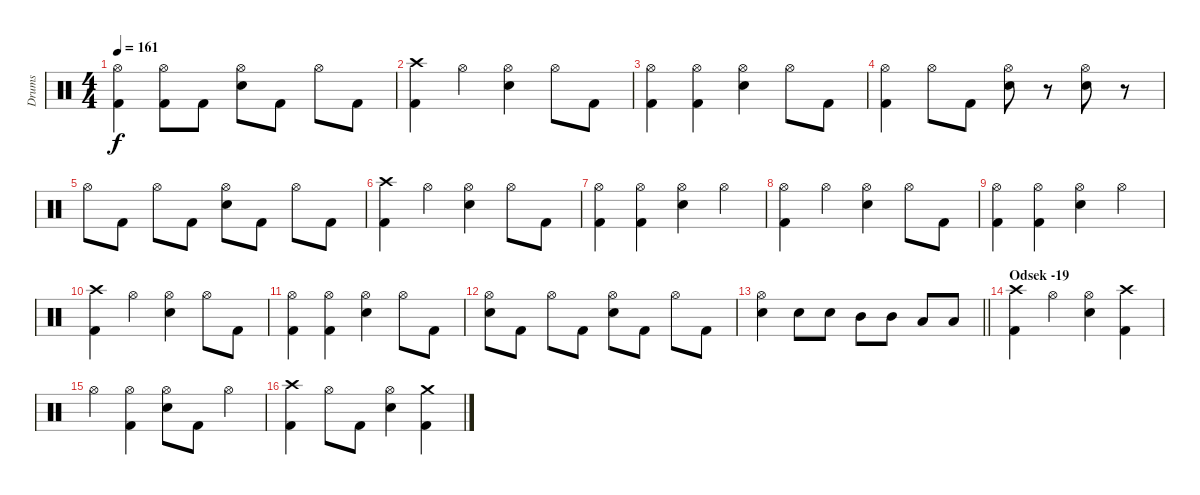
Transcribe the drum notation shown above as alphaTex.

\track ("Drums" "Drums") {instrument percussion}
\staff {score}
\articulation defaults
\ts (4 4)
\tempo 161
\clef neutral
\ks c
("Hi-Hat (open)" "Kick (hit) 2").4{dy f} ("Hi-Hat (open)" "Kick (hit) 2").8 "Kick (hit) 2".8 ("Hi-Hat (open)" "Snare (hit) 2").8 "Kick (hit) 2".8 "Hi-Hat (open)".8 "Kick (hit) 2".8 |
("Crash high (hit)" "Kick (hit) 2").4 "Hi-Hat (open)".4 ("Hi-Hat (open)" "Snare (hit) 2").4 "Hi-Hat (open)".8 "Kick (hit) 2".8 |
("Hi-Hat (open)" "Kick (hit) 2").4 ("Hi-Hat (open)" "Kick (hit) 2").4 ("Hi-Hat (open)" "Snare (hit) 2").4 "Hi-Hat (open)".8 "Kick (hit) 2".8 |
("Hi-Hat (open)" "Kick (hit) 2").4 "Hi-Hat (open)".8 "Kick (hit) 2".8 ("Hi-Hat (open)" "Snare (hit) 2").8 r.8 ("Hi-Hat (open)" "Snare (hit) 2").8 r.8 |
"Hi-Hat (open)".8 "Kick (hit) 2".8 "Hi-Hat (open)".8 "Kick (hit) 2".8 ("Hi-Hat (open)" "Snare (hit) 2").8 "Kick (hit) 2".8 "Hi-Hat (open)".8 "Kick (hit) 2".8 |
("Crash high (hit)" "Kick (hit) 2").4 "Hi-Hat (open)".4 ("Hi-Hat (open)" "Snare (hit) 2").4 "Hi-Hat (open)".8 "Kick (hit) 2".8 |
("Hi-Hat (open)" "Kick (hit) 2").4 ("Hi-Hat (open)" "Kick (hit) 2").4 ("Hi-Hat (open)" "Snare (hit) 2").4 "Hi-Hat (open)".4 |
("Hi-Hat (open)" "Kick (hit) 2").4 "Hi-Hat (open)".4 ("Hi-Hat (open)" "Snare (hit) 2").4 "Hi-Hat (open)".8 "Kick (hit) 2".8 |
("Hi-Hat (open)" "Kick (hit) 2").4 ("Hi-Hat (open)" "Kick (hit) 2").4 ("Hi-Hat (open)" "Snare (hit) 2").4 "Hi-Hat (open)".4 |
("Crash high (hit)" "Kick (hit) 2").4 "Hi-Hat (open)".4 ("Hi-Hat (open)" "Snare (hit) 2").4 "Hi-Hat (open)".8 "Kick (hit) 2".8 |
("Hi-Hat (open)" "Kick (hit) 2").4 ("Hi-Hat (open)" "Kick (hit) 2").4 ("Hi-Hat (open)" "Snare (hit) 2").4 "Hi-Hat (open)".8 "Kick (hit) 2".8 |
("Hi-Hat (open)" "Snare (hit) 2").8 "Kick (hit) 2".8 "Hi-Hat (open)".8 "Kick (hit) 2".8 ("Hi-Hat (open)" "Snare (hit) 2").8 "Kick (hit) 2".8 "Hi-Hat (open)".8 "Kick (hit) 2".8 |
\barLineRight lightlight
("Hi-Hat (open)" "Snare (hit) 2").4 "Snare (hit) 2".8 "Snare (hit) 2".8 "Mid Tom (hit)".8 "Mid Tom (hit)".8 "Low Tom (hit)".8 "Low Tom (hit)".8 |
\section ("" "Odsek -19")
("Crash high (hit)" "Kick (hit) 2").4 "Hi-Hat (open)".4 ("Hi-Hat (open)" "Snare (hit) 2").4 ("Crash high (hit)" "Kick (hit) 2").4 |
"Hi-Hat (open)".4 ("Hi-Hat (open)" "Kick (hit) 2").4 ("Hi-Hat (open)" "Snare (hit) 2").8 "Kick (hit) 2".8 "Hi-Hat (open)".4 |
("Crash high (hit)" "Kick (hit) 2").4 "Hi-Hat (open)".8 "Kick (hit) 2".8 ("Hi-Hat (open)" "Snare (hit) 2").4 ("Crash medium (hit)" "Kick (hit) 2").4
